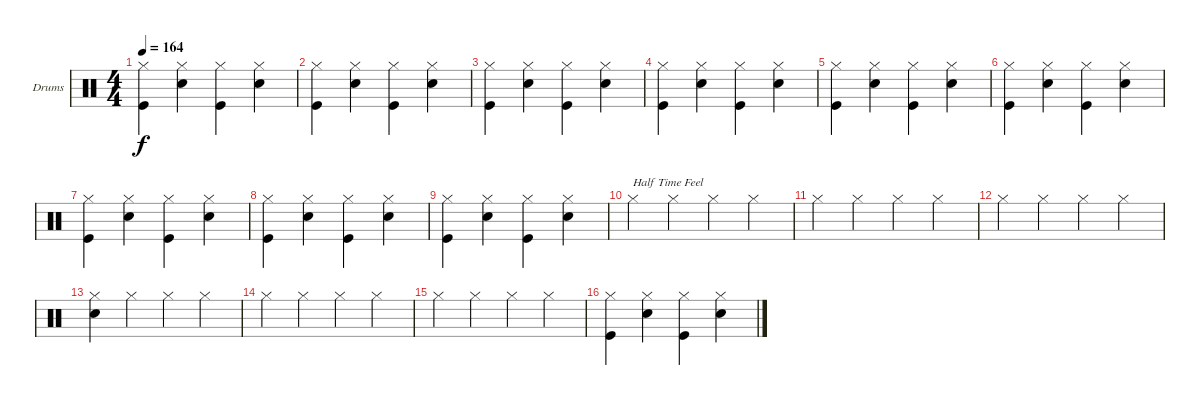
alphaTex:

\bracketExtendMode groupsimilarinstruments
\firstSystemTrackNameOrientation horizontal
\otherSystemsTrackNameOrientation horizontal
\track ("Matt Sorum - Drums" "Drums") {instrument percussion}
\staff {score}
\articulation defaults
\ts (4 4)
\tempo 164
\clef neutral
\ks aminor
("Hi-Hat (closed)" "Kick (hit)").4{dy f} ("Hi-Hat (closed)" "Snare (hit) 2").4 ("Hi-Hat (closed)" "Kick (hit)").4 ("Hi-Hat (closed)" "Snare (hit) 2").4 |
("Hi-Hat (closed)" "Kick (hit)").4 ("Hi-Hat (closed)" "Snare (hit) 2").4 ("Hi-Hat (closed)" "Kick (hit)").4 ("Hi-Hat (closed)" "Snare (hit) 2").4 |
("Hi-Hat (closed)" "Kick (hit)").4 ("Hi-Hat (closed)" "Snare (hit) 2").4 ("Hi-Hat (closed)" "Kick (hit)").4 ("Hi-Hat (closed)" "Snare (hit) 2").4 |
("Hi-Hat (closed)" "Kick (hit)").4 ("Hi-Hat (closed)" "Snare (hit) 2").4 ("Hi-Hat (closed)" "Kick (hit)").4 ("Hi-Hat (closed)" "Snare (hit) 2").4 |
("Hi-Hat (closed)" "Kick (hit)").4 ("Hi-Hat (closed)" "Snare (hit) 2").4 ("Hi-Hat (closed)" "Kick (hit)").4 ("Hi-Hat (closed)" "Snare (hit) 2").4 |
("Hi-Hat (closed)" "Kick (hit)").4 ("Hi-Hat (closed)" "Snare (hit) 2").4 ("Hi-Hat (closed)" "Kick (hit)").4 ("Hi-Hat (closed)" "Snare (hit) 2").4 |
("Hi-Hat (closed)" "Kick (hit)").4 ("Hi-Hat (closed)" "Snare (hit) 2").4 ("Hi-Hat (closed)" "Kick (hit)").4 ("Hi-Hat (closed)" "Snare (hit) 2").4 |
("Hi-Hat (closed)" "Kick (hit)").4 ("Hi-Hat (closed)" "Snare (hit) 2").4 ("Hi-Hat (closed)" "Kick (hit)").4 ("Hi-Hat (closed)" "Snare (hit) 2").4 |
("Hi-Hat (closed)" "Kick (hit)").4 ("Hi-Hat (closed)" "Snare (hit) 2").4 ("Hi-Hat (closed)" "Kick (hit)").4 ("Hi-Hat (closed)" "Snare (hit) 2").4 |
"Hi-Hat (closed)".4{txt "Half Time Feel"} "Hi-Hat (closed)".4 "Hi-Hat (closed)".4 "Hi-Hat (closed)".4 |
"Hi-Hat (closed)".4 "Hi-Hat (closed)".4 "Hi-Hat (closed)".4 "Hi-Hat (closed)".4 |
"Hi-Hat (closed)".4 "Hi-Hat (closed)".4 "Hi-Hat (closed)".4 "Hi-Hat (closed)".4 |
("Snare (hit) 2" "Hi-Hat (closed)").4 "Hi-Hat (closed)".4 "Hi-Hat (closed)".4 "Hi-Hat (closed)".4 |
"Hi-Hat (closed)".4 "Hi-Hat (closed)".4 "Hi-Hat (closed)".4 "Hi-Hat (closed)".4 |
"Hi-Hat (closed)".4 "Hi-Hat (closed)".4 "Hi-Hat (closed)".4 "Hi-Hat (closed)".4 |
("Hi-Hat (closed)" "Kick (hit)").4 ("Hi-Hat (closed)" "Snare (hit) 2").4 ("Hi-Hat (closed)" "Kick (hit)").4 ("Hi-Hat (closed)" "Snare (hit) 2").4
